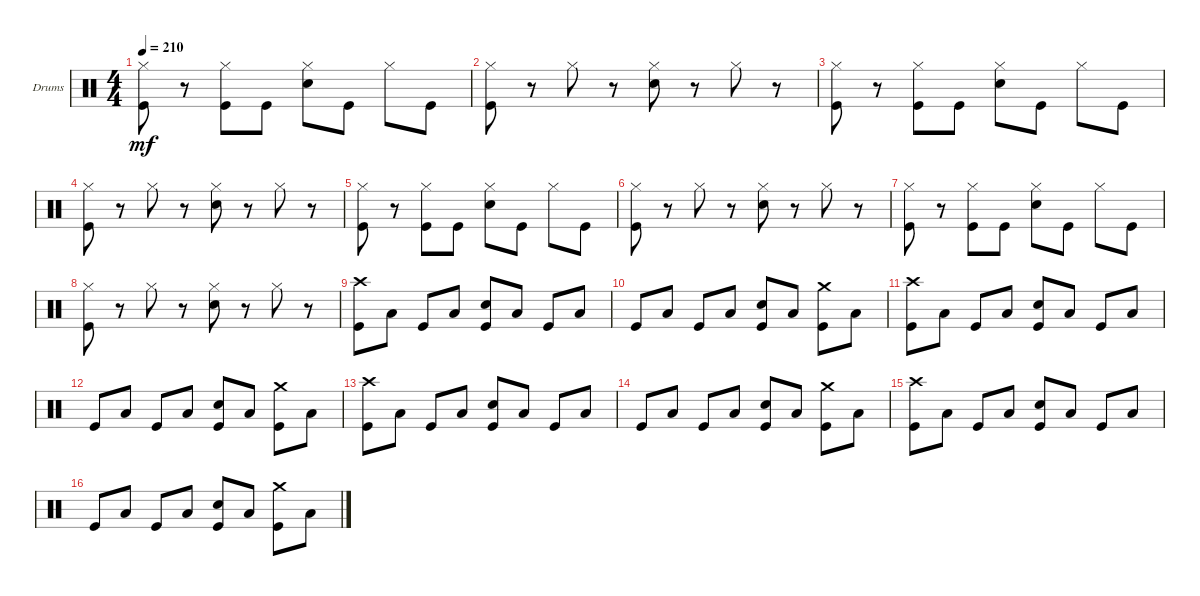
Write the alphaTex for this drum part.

\defaultSystemsLayout 4
\bracketExtendMode groupsimilarinstruments
\firstSystemTrackNameOrientation horizontal
\otherSystemsTrackNameOrientation horizontal
\track ("Dan Johnson (Drums)" "Drums") {instrument percussion}
\staff {score}
\articulation defaults
\ts (4 4)
\tempo 210
\clef neutral
\ks c
("Kick (hit)" "Hi-Hat (closed)").8{dy mf} r.8 ("Kick (hit)" "Hi-Hat (closed)").8 "Kick (hit)".8 ("Snare (hit) 2" "Hi-Hat (closed)").8 "Kick (hit)".8 "Hi-Hat (closed)".8 "Kick (hit)".8 |
("Kick (hit)" "Hi-Hat (closed)").8 r.8 "Hi-Hat (closed)".8 r.8 ("Snare (hit) 2" "Hi-Hat (closed)").8 r.8 "Hi-Hat (closed)".8 r.8 |
("Kick (hit)" "Hi-Hat (closed)").8 r.8 ("Kick (hit)" "Hi-Hat (closed)").8 "Kick (hit)".8 ("Snare (hit) 2" "Hi-Hat (closed)").8 "Kick (hit)".8 "Hi-Hat (closed)".8 "Kick (hit)".8 |
("Kick (hit)" "Hi-Hat (closed)").8 r.8 "Hi-Hat (closed)".8 r.8 ("Snare (hit) 2" "Hi-Hat (closed)").8 r.8 "Hi-Hat (closed)".8 r.8 |
("Kick (hit)" "Hi-Hat (closed)").8 r.8 ("Kick (hit)" "Hi-Hat (closed)").8 "Kick (hit)".8 ("Snare (hit) 2" "Hi-Hat (closed)").8 "Kick (hit)".8 "Hi-Hat (closed)".8 "Kick (hit)".8 |
("Kick (hit)" "Hi-Hat (closed)").8 r.8 "Hi-Hat (closed)".8 r.8 ("Snare (hit) 2" "Hi-Hat (closed)").8 r.8 "Hi-Hat (closed)".8 r.8 |
("Kick (hit)" "Hi-Hat (closed)").8 r.8 ("Kick (hit)" "Hi-Hat (closed)").8 "Kick (hit)".8 ("Snare (hit) 2" "Hi-Hat (closed)").8 "Kick (hit)".8 "Hi-Hat (closed)".8 "Kick (hit)".8 |
("Kick (hit)" "Hi-Hat (closed)").8 r.8 "Hi-Hat (closed)".8 r.8 ("Snare (hit) 2" "Hi-Hat (closed)").8 r.8 "Hi-Hat (closed)".8 r.8 |
("Kick (hit)" "Crash high (hit)").8 "Low Tom (hit)".8 "Kick (hit)".8 "Low Tom (hit)".8 ("Snare (hit) 2" "Kick (hit)").8 "Low Tom (hit)".8 "Kick (hit)".8 "Low Tom (hit)".8 |
"Kick (hit)".8 "Low Tom (hit)".8 "Kick (hit)".8 "Low Tom (hit)".8 ("Snare (hit) 2" "Kick (hit)").8 "Low Tom (hit)".8 ("Kick (hit)" "Crash medium (hit)").8 "Low Tom (hit)".8 |
("Kick (hit)" "Crash high (hit)").8 "Low Tom (hit)".8 "Kick (hit)".8 "Low Tom (hit)".8 ("Snare (hit) 2" "Kick (hit)").8 "Low Tom (hit)".8 "Kick (hit)".8 "Low Tom (hit)".8 |
"Kick (hit)".8 "Low Tom (hit)".8 "Kick (hit)".8 "Low Tom (hit)".8 ("Snare (hit) 2" "Kick (hit)").8 "Low Tom (hit)".8 ("Kick (hit)" "Crash medium (hit)").8 "Low Tom (hit)".8 |
("Kick (hit)" "Crash high (hit)").8 "Low Tom (hit)".8 "Kick (hit)".8 "Low Tom (hit)".8 ("Snare (hit) 2" "Kick (hit)").8 "Low Tom (hit)".8 "Kick (hit)".8 "Low Tom (hit)".8 |
"Kick (hit)".8 "Low Tom (hit)".8 "Kick (hit)".8 "Low Tom (hit)".8 ("Snare (hit) 2" "Kick (hit)").8 "Low Tom (hit)".8 ("Kick (hit)" "Crash medium (hit)").8 "Low Tom (hit)".8 |
("Kick (hit)" "Crash high (hit)").8 "Low Tom (hit)".8 "Kick (hit)".8 "Low Tom (hit)".8 ("Snare (hit) 2" "Kick (hit)").8 "Low Tom (hit)".8 "Kick (hit)".8 "Low Tom (hit)".8 |
"Kick (hit)".8 "Low Tom (hit)".8 "Kick (hit)".8 "Low Tom (hit)".8 ("Snare (hit) 2" "Kick (hit)").8 "Low Tom (hit)".8 ("Kick (hit)" "Crash medium (hit)").8 "Low Tom (hit)".8
